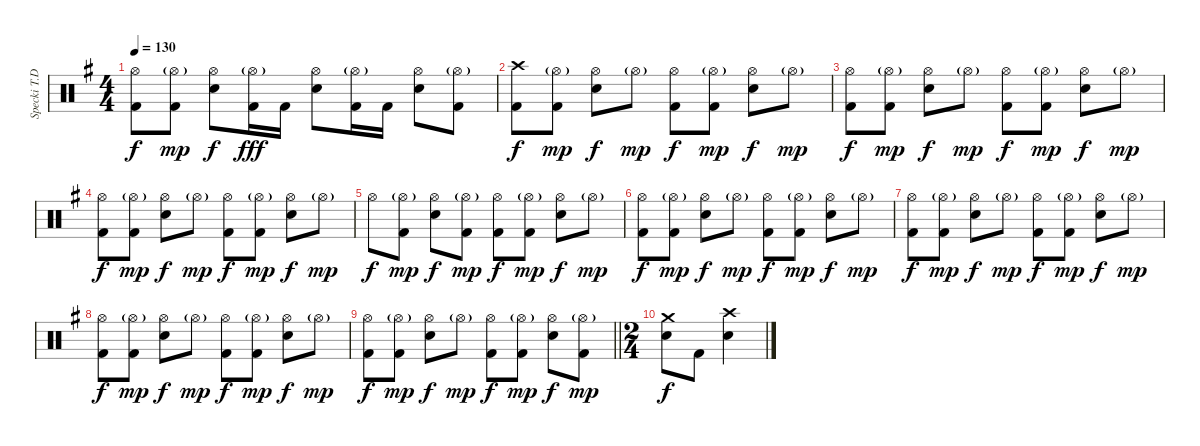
\track ("Specki T.D. (Drums)" "Specki T.D") {instrument percussion}
\staff {score}
\articulation defaults
\ts (4 4)
\tempo 130
\clef neutral
\ks g
("Hi-Hat (open)" "Kick (hit) 2").8{dy f} ("Hi-Hat (open)"{g} "Kick (hit) 2").8{dy mp} ("Hi-Hat (open)" "Snare (hit) 2").8{dy f} ("Hi-Hat (open)"{g} "Kick (hit) 2").16{dy fff} "Kick (hit) 2".16 ("Hi-Hat (open)" "Snare (hit) 2").8 ("Hi-Hat (open)"{g} "Kick (hit) 2").16 "Kick (hit) 2".16 ("Hi-Hat (open)" "Snare (hit) 2").8 ("Hi-Hat (open)"{g} "Kick (hit) 2").8 |
("Crash high (hit)" "Kick (hit) 2").8{dy f} ("Hi-Hat (open)"{g} "Kick (hit) 2").8{dy mp} ("Hi-Hat (open)" "Snare (hit) 2").8{dy f} "Hi-Hat (open)"{g}.8{dy mp} ("Hi-Hat (open)" "Kick (hit) 2").8{dy f} ("Hi-Hat (open)"{g} "Kick (hit) 2").8{dy mp} ("Hi-Hat (open)" "Snare (hit) 2").8{dy f} "Hi-Hat (open)"{g}.8{dy mp} |
("Hi-Hat (open)" "Kick (hit) 2").8{dy f} ("Hi-Hat (open)"{g} "Kick (hit) 2").8{dy mp} ("Hi-Hat (open)" "Snare (hit) 2").8{dy f} "Hi-Hat (open)"{g}.8{dy mp} ("Hi-Hat (open)" "Kick (hit) 2").8{dy f} ("Hi-Hat (open)"{g} "Kick (hit) 2").8{dy mp} ("Hi-Hat (open)" "Snare (hit) 2").8{dy f} "Hi-Hat (open)"{g}.8{dy mp} |
("Hi-Hat (open)" "Kick (hit) 2").8{dy f} ("Hi-Hat (open)"{g} "Kick (hit) 2").8{dy mp} ("Hi-Hat (open)" "Snare (hit) 2").8{dy f} "Hi-Hat (open)"{g}.8{dy mp} ("Hi-Hat (open)" "Kick (hit) 2").8{dy f} ("Hi-Hat (open)"{g} "Kick (hit) 2").8{dy mp} ("Hi-Hat (open)" "Snare (hit) 2").8{dy f} "Hi-Hat (open)"{g}.8{dy mp} |
"Hi-Hat (open)".8{dy f} ("Hi-Hat (open)"{g} "Kick (hit) 2").8{dy mp} ("Hi-Hat (open)" "Snare (hit) 2").8{dy f} ("Hi-Hat (open)"{g} "Kick (hit) 2").8{dy mp} ("Hi-Hat (open)" "Kick (hit) 2").8{dy f} ("Hi-Hat (open)"{g} "Kick (hit) 2").8{dy mp} ("Hi-Hat (open)" "Snare (hit) 2").8{dy f} "Hi-Hat (open)"{g}.8{dy mp} |
("Hi-Hat (open)" "Kick (hit) 2").8{dy f} ("Hi-Hat (open)"{g} "Kick (hit) 2").8{dy mp} ("Hi-Hat (open)" "Snare (hit) 2").8{dy f} "Hi-Hat (open)"{g}.8{dy mp} ("Hi-Hat (open)" "Kick (hit) 2").8{dy f} ("Hi-Hat (open)"{g} "Kick (hit) 2").8{dy mp} ("Hi-Hat (open)" "Snare (hit) 2").8{dy f} "Hi-Hat (open)"{g}.8{dy mp} |
("Hi-Hat (open)" "Kick (hit) 2").8{dy f} ("Hi-Hat (open)"{g} "Kick (hit) 2").8{dy mp} ("Hi-Hat (open)" "Snare (hit) 2").8{dy f} "Hi-Hat (open)"{g}.8{dy mp} ("Hi-Hat (open)" "Kick (hit) 2").8{dy f} ("Hi-Hat (open)"{g} "Kick (hit) 2").8{dy mp} ("Hi-Hat (open)" "Snare (hit) 2").8{dy f} "Hi-Hat (open)"{g}.8{dy mp} |
("Hi-Hat (open)" "Kick (hit) 2").8{dy f} ("Hi-Hat (open)"{g} "Kick (hit) 2").8{dy mp} ("Hi-Hat (open)" "Snare (hit) 2").8{dy f} "Hi-Hat (open)"{g}.8{dy mp} ("Hi-Hat (open)" "Kick (hit) 2").8{dy f} ("Hi-Hat (open)"{g} "Kick (hit) 2").8{dy mp} ("Hi-Hat (open)" "Snare (hit) 2").8{dy f} "Hi-Hat (open)"{g}.8{dy mp} |
\barLineRight lightlight
("Hi-Hat (open)" "Kick (hit) 2").8{dy f} ("Hi-Hat (open)"{g} "Kick (hit) 2").8{dy mp} ("Hi-Hat (open)" "Snare (hit) 2").8{dy f} "Hi-Hat (open)"{g}.8{dy mp} ("Hi-Hat (open)" "Kick (hit) 2").8{dy f} ("Hi-Hat (open)"{g} "Kick (hit) 2").8{dy mp} ("Hi-Hat (open)" "Snare (hit) 2").8{dy f} ("Hi-Hat (open)"{g} "Kick (hit) 2").8{dy mp} |
\ts (2 4)
("Crash medium (hit)" "Snare (hit) 2").8{dy f} "Kick (hit) 2".8 ("Crash high (hit)" "Snare (hit) 2").4
